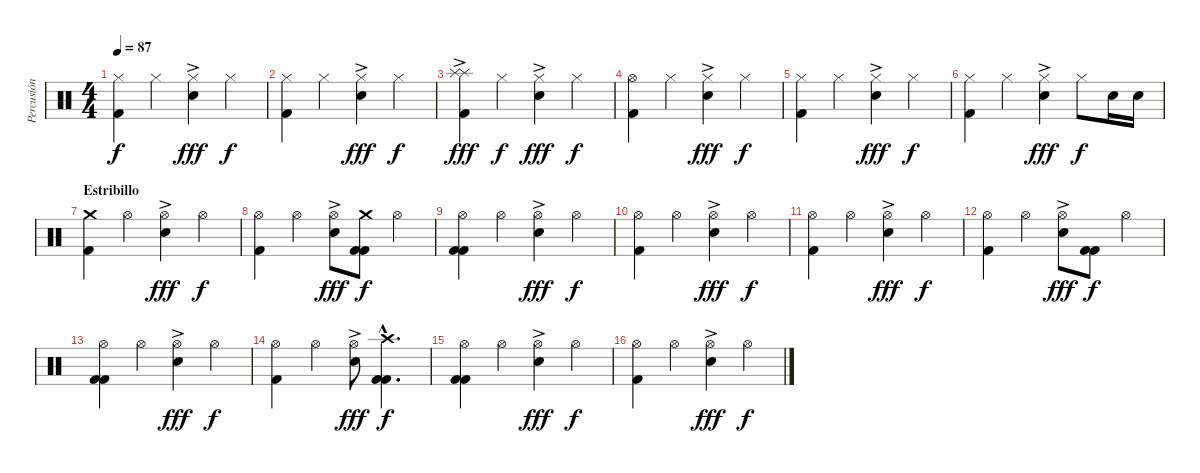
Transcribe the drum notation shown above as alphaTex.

\track ("Percusión" "Percusión") {instrument percussion}
\staff {score}
\articulation defaults
\ts (4 4)
\tempo 87
\clef neutral
\ks c
("Hi-Hat (closed)" "Kick (hit) 2").4{dy f} "Hi-Hat (closed)".4 ("Hi-Hat (closed)"{ac} "Snare (hit) 2"{ac}).4{dy fff} "Hi-Hat (closed)".4{dy f} |
("Hi-Hat (closed)" "Kick (hit) 2").4 "Hi-Hat (closed)".4 ("Hi-Hat (closed)"{ac} "Snare (hit) 2"{ac}).4{dy fff} "Hi-Hat (closed)".4{dy f} |
("Splash (hit)"{ac} "Splash (hit)" "Kick (hit) 2").4{dy fff} "Hi-Hat (closed)".4{dy f} ("Hi-Hat (closed)" "Snare (hit) 2"{ac}).4{dy fff} "Hi-Hat (closed)".4{dy f} |
("Hi-Hat (open)" "Kick (hit) 2").4 "Hi-Hat (closed)".4 ("Hi-Hat (closed)" "Snare (hit) 2"{ac}).4{dy fff} "Hi-Hat (closed)".4{dy f} |
("Hi-Hat (closed)" "Kick (hit) 2").4 "Hi-Hat (closed)".4 ("Hi-Hat (closed)"{ac} "Snare (hit) 2"{ac}).4{dy fff} "Hi-Hat (closed)".4{dy f} |
("Hi-Hat (closed)" "Kick (hit) 2").4 "Hi-Hat (closed)".4 ("Hi-Hat (closed)"{ac} "Snare (hit) 2"{ac}).4{dy fff} "Hi-Hat (closed)".8{dy f} "Snare (hit) 2".16 "Snare (hit) 2".16 |
\section ("" "Estribillo")
("Crash medium (hit)" "Kick (hit) 2").4 "Hi-Hat (open)".4 ("Hi-Hat (open)" "Snare (hit) 2"{ac}).4{dy fff} "Hi-Hat (open)".4{dy f} |
("Hi-Hat (open)" "Kick (hit) 2").4 "Hi-Hat (open)".4 ("Hi-Hat (open)" "Snare (hit) 2"{ac}).8{dy fff} ("Crash medium (hit)" "Kick (hit) 2" "Kick (hit) 2").8{dy f} "Hi-Hat (open)".4 |
("Hi-Hat (open)" "Kick (hit) 2" "Kick (hit) 2").4 "Hi-Hat (open)".4 ("Hi-Hat (open)"{ac} "Snare (hit) 2").4{dy fff} "Hi-Hat (open)".4{dy f} |
("Hi-Hat (open)" "Kick (hit) 2").4 "Hi-Hat (open)".4 ("Hi-Hat (open)" "Snare (hit) 2"{ac}).4{dy fff} "Hi-Hat (open)".4{dy f} |
("Hi-Hat (open)" "Kick (hit) 2").4 "Hi-Hat (open)".4 ("Hi-Hat (open)" "Snare (hit) 2"{ac}).4{dy fff} "Hi-Hat (open)".4{dy f} |
("Hi-Hat (open)" "Kick (hit) 2").4 "Hi-Hat (open)".4 ("Hi-Hat (open)" "Snare (hit) 2"{ac}).8{dy fff} ("Kick (hit) 2" "Kick (hit) 2").8{dy f} "Hi-Hat (open)".4 |
("Hi-Hat (open)" "Kick (hit) 2" "Kick (hit) 2").4 "Hi-Hat (open)".4 ("Hi-Hat (open)"{ac} "Snare (hit) 2").4{dy fff} "Hi-Hat (open)".4{dy f} |
("Hi-Hat (open)" "Kick (hit) 2").4 "Hi-Hat (open)".4 ("Hi-Hat (open)" "Snare (hit) 2"{ac}).8{dy fff} ("Crash high (hit)"{hac} "Kick (hit) 2"{hac} "Kick (hit) 2"{hac}).4{d dy f} |
("Hi-Hat (open)" "Kick (hit) 2" "Kick (hit) 2").4 "Hi-Hat (open)".4 ("Hi-Hat (open)"{ac} "Snare (hit) 2").4{dy fff} "Hi-Hat (open)".4{dy f} |
("Hi-Hat (open)" "Kick (hit) 2").4 "Hi-Hat (open)".4 ("Hi-Hat (open)" "Snare (hit) 2"{ac}).4{dy fff} "Hi-Hat (open)".4{dy f}
